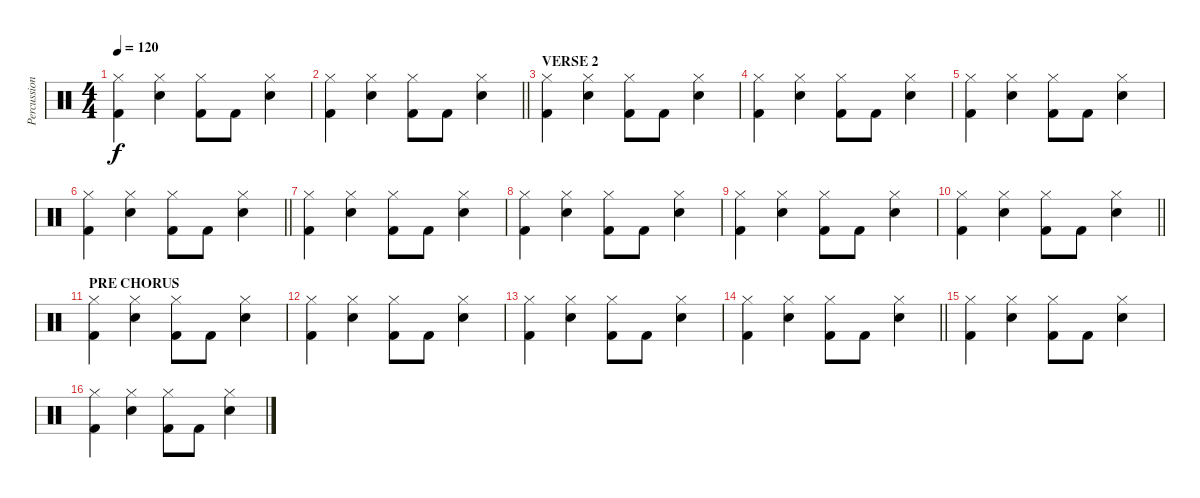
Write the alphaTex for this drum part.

\track ("Percussion" "Percussion") {instrument percussion}
\staff {score}
\articulation defaults
\ts (4 4)
\tempo 120
\clef neutral
\ks c
("Hi-Hat (closed)" "Kick (hit) 2").4{dy f} ("Hi-Hat (closed)" "Snare (hit) 2").4 ("Hi-Hat (closed)" "Kick (hit) 2").8 "Kick (hit) 2".8 ("Hi-Hat (closed)" "Snare (hit) 2").4 |
\barLineRight lightlight
("Hi-Hat (closed)" "Kick (hit) 2").4 ("Hi-Hat (closed)" "Snare (hit) 2").4 ("Hi-Hat (closed)" "Kick (hit) 2").8 "Kick (hit) 2".8 ("Hi-Hat (closed)" "Snare (hit) 2").4 |
\section ("" "VERSE 2")
("Hi-Hat (closed)" "Kick (hit) 2").4 ("Hi-Hat (closed)" "Snare (hit) 2").4 ("Hi-Hat (closed)" "Kick (hit) 2").8 "Kick (hit) 2".8 ("Hi-Hat (closed)" "Snare (hit) 2").4 |
("Hi-Hat (closed)" "Kick (hit) 2").4 ("Hi-Hat (closed)" "Snare (hit) 2").4 ("Hi-Hat (closed)" "Kick (hit) 2").8 "Kick (hit) 2".8 ("Hi-Hat (closed)" "Snare (hit) 2").4 |
("Hi-Hat (closed)" "Kick (hit) 2").4 ("Hi-Hat (closed)" "Snare (hit) 2").4 ("Hi-Hat (closed)" "Kick (hit) 2").8 "Kick (hit) 2".8 ("Hi-Hat (closed)" "Snare (hit) 2").4 |
\barLineRight lightlight
("Hi-Hat (closed)" "Kick (hit) 2").4 ("Hi-Hat (closed)" "Snare (hit) 2").4 ("Hi-Hat (closed)" "Kick (hit) 2").8 "Kick (hit) 2".8 ("Hi-Hat (closed)" "Snare (hit) 2").4 |
("Hi-Hat (closed)" "Kick (hit) 2").4 ("Hi-Hat (closed)" "Snare (hit) 2").4 ("Hi-Hat (closed)" "Kick (hit) 2").8 "Kick (hit) 2".8 ("Hi-Hat (closed)" "Snare (hit) 2").4 |
("Hi-Hat (closed)" "Kick (hit) 2").4 ("Hi-Hat (closed)" "Snare (hit) 2").4 ("Hi-Hat (closed)" "Kick (hit) 2").8 "Kick (hit) 2".8 ("Hi-Hat (closed)" "Snare (hit) 2").4 |
("Hi-Hat (closed)" "Kick (hit) 2").4 ("Hi-Hat (closed)" "Snare (hit) 2").4 ("Hi-Hat (closed)" "Kick (hit) 2").8 "Kick (hit) 2".8 ("Hi-Hat (closed)" "Snare (hit) 2").4 |
\barLineRight lightlight
("Hi-Hat (closed)" "Kick (hit) 2").4 ("Hi-Hat (closed)" "Snare (hit) 2").4 ("Hi-Hat (closed)" "Kick (hit) 2").8 "Kick (hit) 2".8 ("Hi-Hat (closed)" "Snare (hit) 2").4 |
\section ("" "PRE CHORUS")
("Hi-Hat (closed)" "Kick (hit) 2").4 ("Hi-Hat (closed)" "Snare (hit) 2").4 ("Hi-Hat (closed)" "Kick (hit) 2").8 "Kick (hit) 2".8 ("Hi-Hat (closed)" "Snare (hit) 2").4 |
("Hi-Hat (closed)" "Kick (hit) 2").4 ("Hi-Hat (closed)" "Snare (hit) 2").4 ("Hi-Hat (closed)" "Kick (hit) 2").8 "Kick (hit) 2".8 ("Hi-Hat (closed)" "Snare (hit) 2").4 |
("Hi-Hat (closed)" "Kick (hit) 2").4 ("Hi-Hat (closed)" "Snare (hit) 2").4 ("Hi-Hat (closed)" "Kick (hit) 2").8 "Kick (hit) 2".8 ("Hi-Hat (closed)" "Snare (hit) 2").4 |
\barLineRight lightlight
("Hi-Hat (closed)" "Kick (hit) 2").4 ("Hi-Hat (closed)" "Snare (hit) 2").4 ("Hi-Hat (closed)" "Kick (hit) 2").8 "Kick (hit) 2".8 ("Hi-Hat (closed)" "Snare (hit) 2").4 |
("Hi-Hat (closed)" "Kick (hit) 2").4 ("Hi-Hat (closed)" "Snare (hit) 2").4 ("Hi-Hat (closed)" "Kick (hit) 2").8 "Kick (hit) 2".8 ("Hi-Hat (closed)" "Snare (hit) 2").4 |
("Hi-Hat (closed)" "Kick (hit) 2").4 ("Hi-Hat (closed)" "Snare (hit) 2").4 ("Hi-Hat (closed)" "Kick (hit) 2").8 "Kick (hit) 2".8 ("Hi-Hat (closed)" "Snare (hit) 2").4
